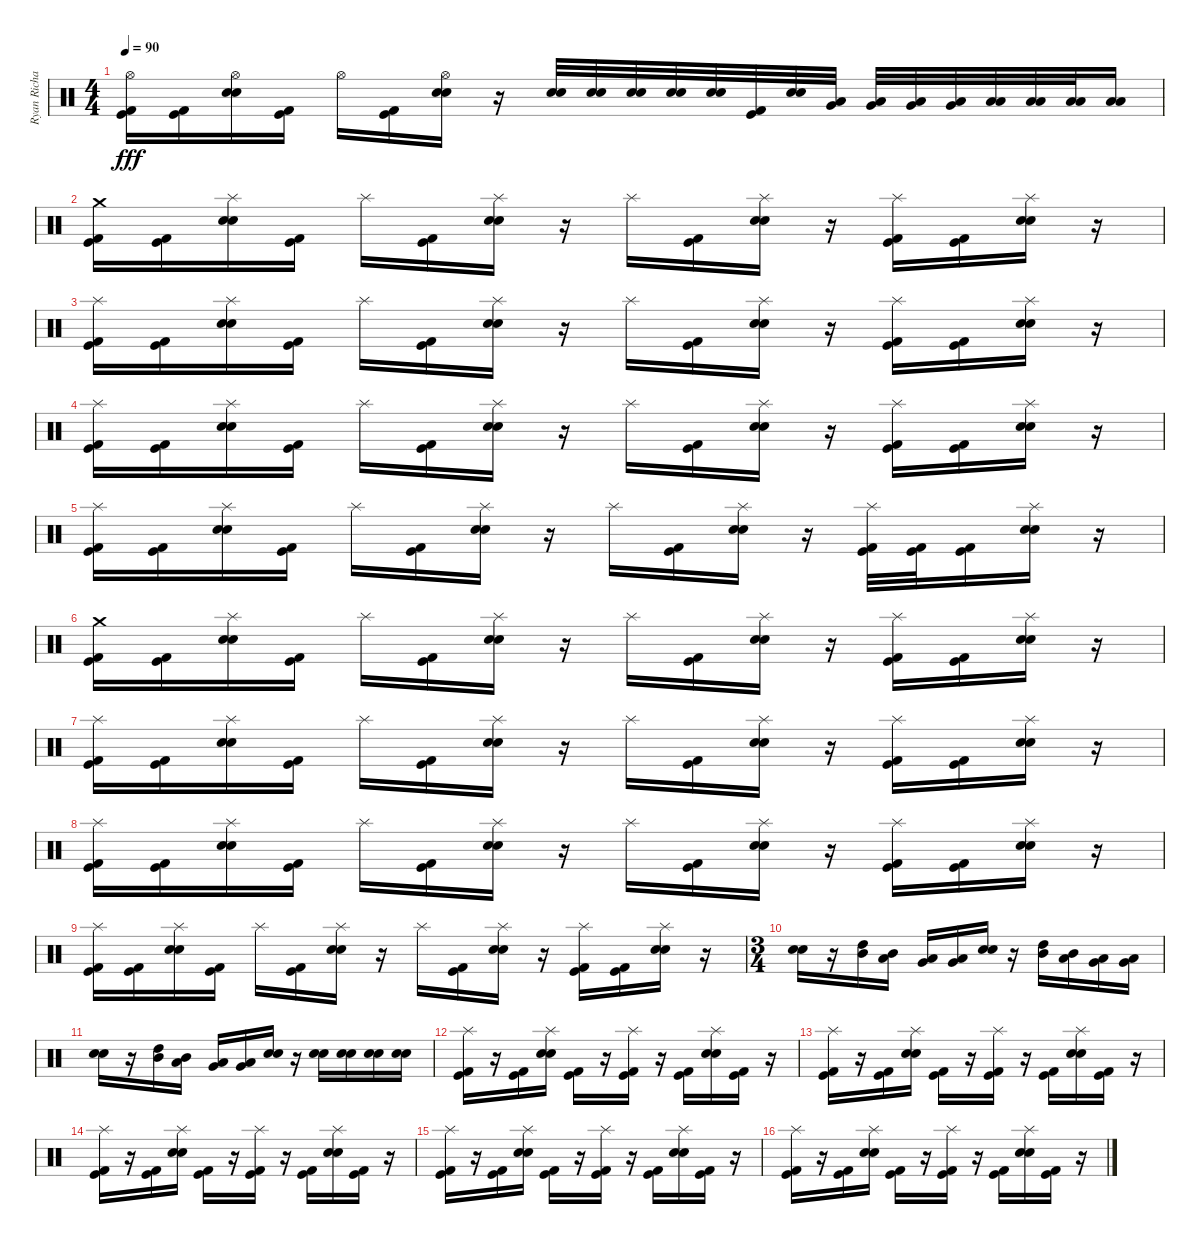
\track ("Ryan Richards" "Ryan Richa") {instrument percussion}
\staff {score}
\articulation defaults
\ts (4 4)
\tempo 90
\clef neutral
\ks c
("Kick (hit)" "Hi-Hat (open)" "Kick (hit) 2").16{dy fff} ("Kick (hit)" "Kick (hit) 2").16 ("Hi-Hat (open)" "Snare (hit) 2" "Electric Snare (hit)").16 ("Kick (hit)" "Kick (hit) 2").16 "Hi-Hat (open)".16 ("Kick (hit)" "Kick (hit) 2").16 ("Hi-Hat (open)" "Snare (hit) 2" "Electric Snare (hit)").16 r.16 ("Snare (hit) 2" "Electric Snare (hit)").32 ("Snare (hit) 2" "Electric Snare (hit)").32 ("Snare (hit) 2" "Electric Snare (hit)").32 ("Snare (hit) 2" "Electric Snare (hit)").32 ("Snare (hit) 2" "Electric Snare (hit)").32 ("Kick (hit)" "Kick (hit) 2").32 ("Snare (hit) 2" "Electric Snare (hit)").32 ("Very Low Tom (hit)" "Low Floor Tom (hit)").32 ("Very Low Tom (hit)" "Low Floor Tom (hit)").32 ("Very Low Tom (hit)" "Low Floor Tom (hit)").32 ("Very Low Tom (hit)" "Low Floor Tom (hit)").32 ("Low Floor Tom (hit)" "Low Floor Tom (hit)").32 ("Low Floor Tom (hit)" "Low Floor Tom (hit)").32 ("Low Floor Tom (hit)" "Low Floor Tom (hit)").32 ("Low Floor Tom (hit)" "Low Floor Tom (hit)").16 |
("Kick (hit)" "Crash medium (hit)" "Kick (hit) 2").16 ("Kick (hit)" "Kick (hit) 2").16 ("Splash (hit)" "Snare (hit) 2" "Electric Snare (hit)").16 ("Kick (hit)" "Kick (hit) 2").16 "Splash (hit)".16 ("Kick (hit)" "Kick (hit) 2").16 ("Splash (hit)" "Snare (hit) 2" "Electric Snare (hit)").16 r.16 "Splash (hit)".16 ("Kick (hit)" "Kick (hit) 2").16 ("Splash (hit)" "Snare (hit) 2" "Electric Snare (hit)").16 r.16 ("Kick (hit)" "Splash (hit)" "Kick (hit) 2").16 ("Kick (hit)" "Kick (hit) 2").16 ("Splash (hit)" "Snare (hit) 2" "Electric Snare (hit)").16 r.16 |
("Kick (hit)" "Splash (hit)" "Kick (hit) 2").16 ("Kick (hit)" "Kick (hit) 2").16 ("Splash (hit)" "Snare (hit) 2" "Electric Snare (hit)").16 ("Kick (hit)" "Kick (hit) 2").16 "Splash (hit)".16 ("Kick (hit)" "Kick (hit) 2").16 ("Splash (hit)" "Snare (hit) 2" "Electric Snare (hit)").16 r.16 "Splash (hit)".16 ("Kick (hit)" "Kick (hit) 2").16 ("Splash (hit)" "Snare (hit) 2" "Electric Snare (hit)").16 r.16 ("Kick (hit)" "Splash (hit)" "Kick (hit) 2").16 ("Kick (hit)" "Kick (hit) 2").16 ("Splash (hit)" "Snare (hit) 2" "Electric Snare (hit)").16 r.16 |
("Kick (hit)" "Splash (hit)" "Kick (hit) 2").16 ("Kick (hit)" "Kick (hit) 2").16 ("Splash (hit)" "Snare (hit) 2" "Electric Snare (hit)").16 ("Kick (hit)" "Kick (hit) 2").16 "Splash (hit)".16 ("Kick (hit)" "Kick (hit) 2").16 ("Splash (hit)" "Snare (hit) 2" "Electric Snare (hit)").16 r.16 "Splash (hit)".16 ("Kick (hit)" "Kick (hit) 2").16 ("Splash (hit)" "Snare (hit) 2" "Electric Snare (hit)").16 r.16 ("Kick (hit)" "Splash (hit)" "Kick (hit) 2").16 ("Kick (hit)" "Kick (hit) 2").16 ("Splash (hit)" "Snare (hit) 2" "Electric Snare (hit)").16 r.16 |
("Kick (hit)" "Splash (hit)" "Kick (hit) 2").16 ("Kick (hit)" "Kick (hit) 2").16 ("Splash (hit)" "Snare (hit) 2" "Electric Snare (hit)").16 ("Kick (hit)" "Kick (hit) 2").16 "Splash (hit)".16 ("Kick (hit)" "Kick (hit) 2").16 ("Splash (hit)" "Snare (hit) 2" "Electric Snare (hit)").16 r.16 "Splash (hit)".16 ("Kick (hit)" "Kick (hit) 2").16 ("Splash (hit)" "Snare (hit) 2" "Electric Snare (hit)").16 r.16 ("Kick (hit)" "Splash (hit)" "Kick (hit) 2").32 ("Kick (hit)" "Kick (hit) 2").32 ("Kick (hit)" "Kick (hit) 2").16 ("Splash (hit)" "Snare (hit) 2" "Electric Snare (hit)").16 r.16 |
("Kick (hit)" "Crash medium (hit)" "Kick (hit) 2").16 ("Kick (hit)" "Kick (hit) 2").16 ("Splash (hit)" "Snare (hit) 2" "Electric Snare (hit)").16 ("Kick (hit)" "Kick (hit) 2").16 "Splash (hit)".16 ("Kick (hit)" "Kick (hit) 2").16 ("Splash (hit)" "Snare (hit) 2" "Electric Snare (hit)").16 r.16 "Splash (hit)".16 ("Kick (hit)" "Kick (hit) 2").16 ("Splash (hit)" "Snare (hit) 2" "Electric Snare (hit)").16 r.16 ("Kick (hit)" "Splash (hit)" "Kick (hit) 2").16 ("Kick (hit)" "Kick (hit) 2").16 ("Splash (hit)" "Snare (hit) 2" "Electric Snare (hit)").16 r.16 |
("Kick (hit)" "Splash (hit)" "Kick (hit) 2").16 ("Kick (hit)" "Kick (hit) 2").16 ("Splash (hit)" "Snare (hit) 2" "Electric Snare (hit)").16 ("Kick (hit)" "Kick (hit) 2").16 "Splash (hit)".16 ("Kick (hit)" "Kick (hit) 2").16 ("Splash (hit)" "Snare (hit) 2" "Electric Snare (hit)").16 r.16 "Splash (hit)".16 ("Kick (hit)" "Kick (hit) 2").16 ("Splash (hit)" "Snare (hit) 2" "Electric Snare (hit)").16 r.16 ("Kick (hit)" "Splash (hit)" "Kick (hit) 2").16 ("Kick (hit)" "Kick (hit) 2").16 ("Splash (hit)" "Snare (hit) 2" "Electric Snare (hit)").16 r.16 |
("Kick (hit)" "Splash (hit)" "Kick (hit) 2").16 ("Kick (hit)" "Kick (hit) 2").16 ("Splash (hit)" "Snare (hit) 2" "Electric Snare (hit)").16 ("Kick (hit)" "Kick (hit) 2").16 "Splash (hit)".16 ("Kick (hit)" "Kick (hit) 2").16 ("Splash (hit)" "Snare (hit) 2" "Electric Snare (hit)").16 r.16 "Splash (hit)".16 ("Kick (hit)" "Kick (hit) 2").16 ("Splash (hit)" "Snare (hit) 2" "Electric Snare (hit)").16 r.16 ("Kick (hit)" "Splash (hit)" "Kick (hit) 2").16 ("Kick (hit)" "Kick (hit) 2").16 ("Splash (hit)" "Snare (hit) 2" "Electric Snare (hit)").16 r.16 |
("Kick (hit)" "Splash (hit)" "Kick (hit) 2").16 ("Kick (hit)" "Kick (hit) 2").16 ("Splash (hit)" "Snare (hit) 2" "Electric Snare (hit)").16 ("Kick (hit)" "Kick (hit) 2").16 "Splash (hit)".16 ("Kick (hit)" "Kick (hit) 2").16 ("Splash (hit)" "Snare (hit) 2" "Electric Snare (hit)").16 r.16 "Splash (hit)".16 ("Kick (hit)" "Kick (hit) 2").16 ("Splash (hit)" "Snare (hit) 2" "Electric Snare (hit)").16 r.16 ("Kick (hit)" "Splash (hit)" "Kick (hit) 2").16 ("Kick (hit)" "Kick (hit) 2").16 ("Splash (hit)" "Snare (hit) 2" "Electric Snare (hit)").16 r.16 |
\ts (3 4)
("Snare (hit) 2" "Electric Snare (hit)").16 r.16 ("High Tom (hit)" "Mid Tom (hit)").16 ("Mid Tom (hit)" "Low Tom (hit)").16 ("Low Tom (hit)" "Very Low Tom (hit)").16 ("Very Low Tom (hit)" "Low Floor Tom (hit)").16 ("Snare (hit) 2" "Electric Snare (hit)").16 r.16 ("High Tom (hit)" "Mid Tom (hit)").16 ("Mid Tom (hit)" "Low Tom (hit)").16 ("Low Tom (hit)" "Very Low Tom (hit)").16 ("Very Low Tom (hit)" "Low Floor Tom (hit)").16 |
("Snare (hit) 2" "Electric Snare (hit)").16 r.16 ("High Tom (hit)" "Mid Tom (hit)").16 ("Mid Tom (hit)" "Low Tom (hit)").16 ("Low Tom (hit)" "Very Low Tom (hit)").16 ("Very Low Tom (hit)" "Low Floor Tom (hit)").16 ("Snare (hit) 2" "Electric Snare (hit)").16 r.16 ("Snare (hit) 2" "Electric Snare (hit)").16 ("Snare (hit) 2" "Electric Snare (hit)").16 ("Snare (hit) 2" "Electric Snare (hit)").16 ("Snare (hit) 2" "Electric Snare (hit)").16 |
("Kick (hit)" "Splash (hit)" "Kick (hit) 2").16 r.16 ("Kick (hit)" "Kick (hit) 2").16 ("Splash (hit)" "Snare (hit) 2" "Electric Snare (hit)").16 ("Kick (hit)" "Kick (hit) 2").16 r.16 ("Kick (hit)" "Splash (hit)" "Kick (hit) 2").16 r.16 ("Kick (hit)" "Kick (hit) 2").16 ("Splash (hit)" "Snare (hit) 2" "Electric Snare (hit)").16 ("Kick (hit)" "Kick (hit) 2").16 r.16 |
("Kick (hit)" "Splash (hit)" "Kick (hit) 2").16 r.16 ("Kick (hit)" "Kick (hit) 2").16 ("Splash (hit)" "Snare (hit) 2" "Electric Snare (hit)").16 ("Kick (hit)" "Kick (hit) 2").16 r.16 ("Kick (hit)" "Splash (hit)" "Kick (hit) 2").16 r.16 ("Kick (hit)" "Kick (hit) 2").16 ("Splash (hit)" "Snare (hit) 2" "Electric Snare (hit)").16 ("Kick (hit)" "Kick (hit) 2").16 r.16 |
("Kick (hit)" "Splash (hit)" "Kick (hit) 2").16 r.16 ("Kick (hit)" "Kick (hit) 2").16 ("Splash (hit)" "Snare (hit) 2" "Electric Snare (hit)").16 ("Kick (hit)" "Kick (hit) 2").16 r.16 ("Kick (hit)" "Splash (hit)" "Kick (hit) 2").16 r.16 ("Kick (hit)" "Kick (hit) 2").16 ("Splash (hit)" "Snare (hit) 2" "Electric Snare (hit)").16 ("Kick (hit)" "Kick (hit) 2").16 r.16 |
("Kick (hit)" "Splash (hit)" "Kick (hit) 2").16 r.16 ("Kick (hit)" "Kick (hit) 2").16 ("Splash (hit)" "Snare (hit) 2" "Electric Snare (hit)").16 ("Kick (hit)" "Kick (hit) 2").16 r.16 ("Kick (hit)" "Splash (hit)" "Kick (hit) 2").16 r.16 ("Kick (hit)" "Kick (hit) 2").16 ("Splash (hit)" "Snare (hit) 2" "Electric Snare (hit)").16 ("Kick (hit)" "Kick (hit) 2").16 r.16 |
("Kick (hit)" "Splash (hit)" "Kick (hit) 2").16 r.16 ("Kick (hit)" "Kick (hit) 2").16 ("Splash (hit)" "Snare (hit) 2" "Electric Snare (hit)").16 ("Kick (hit)" "Kick (hit) 2").16 r.16 ("Kick (hit)" "Splash (hit)" "Kick (hit) 2").16 r.16 ("Kick (hit)" "Kick (hit) 2").16 ("Splash (hit)" "Snare (hit) 2" "Electric Snare (hit)").16 ("Kick (hit)" "Kick (hit) 2").16 r.16
